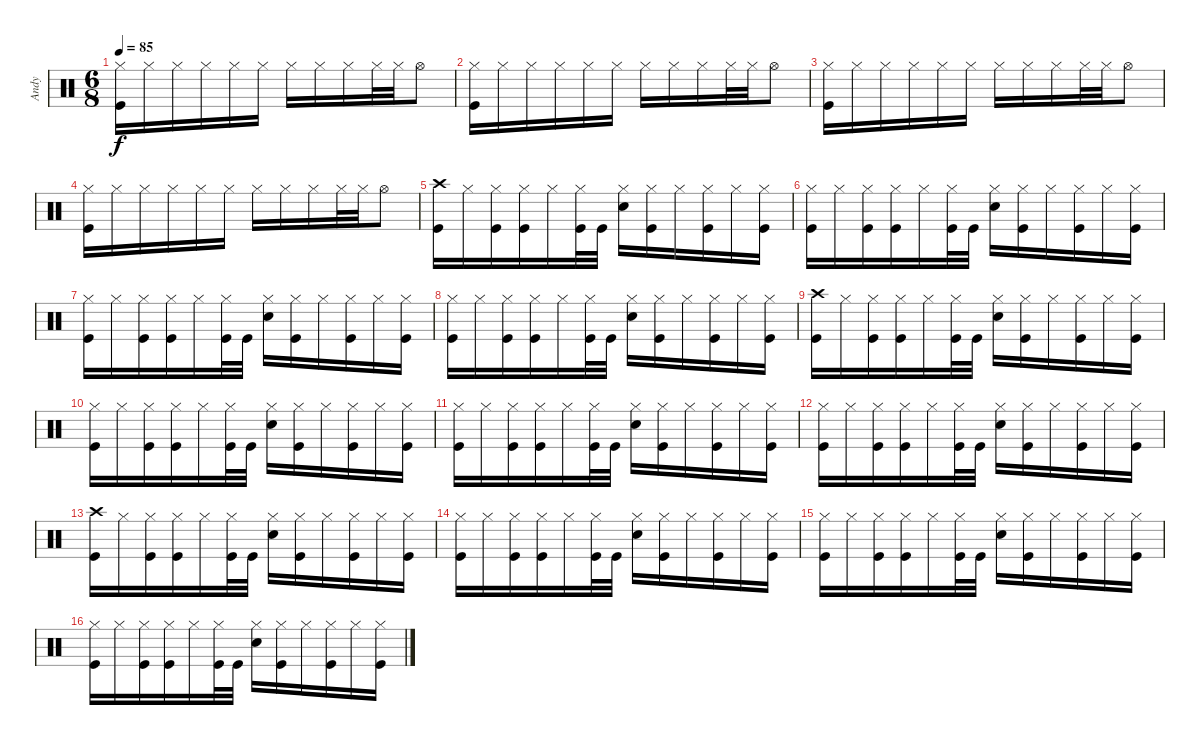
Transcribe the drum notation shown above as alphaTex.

\track ("Andy" "Andy") {instrument percussion}
\staff {score}
\articulation defaults
\ts (6 8)
\tempo 85
\clef neutral
\ks c
("Kick (hit)" "Hi-Hat (closed)").16{dy f} "Hi-Hat (closed)".16 "Hi-Hat (closed)".16 "Hi-Hat (closed)".16 "Hi-Hat (closed)".16 "Hi-Hat (closed)".16 "Hi-Hat (closed)".16 "Hi-Hat (closed)".16 "Hi-Hat (closed)".16 "Hi-Hat (closed)".32 "Hi-Hat (closed)".32 "Hi-Hat (open)".8 |
("Kick (hit)" "Hi-Hat (closed)").16 "Hi-Hat (closed)".16 "Hi-Hat (closed)".16 "Hi-Hat (closed)".16 "Hi-Hat (closed)".16 "Hi-Hat (closed)".16 "Hi-Hat (closed)".16 "Hi-Hat (closed)".16 "Hi-Hat (closed)".16 "Hi-Hat (closed)".32 "Hi-Hat (closed)".32 "Hi-Hat (open)".8 |
("Kick (hit)" "Hi-Hat (closed)").16 "Hi-Hat (closed)".16 "Hi-Hat (closed)".16 "Hi-Hat (closed)".16 "Hi-Hat (closed)".16 "Hi-Hat (closed)".16 "Hi-Hat (closed)".16 "Hi-Hat (closed)".16 "Hi-Hat (closed)".16 "Hi-Hat (closed)".32 "Hi-Hat (closed)".32 "Hi-Hat (open)".8 |
("Kick (hit)" "Hi-Hat (closed)").16 "Hi-Hat (closed)".16 "Hi-Hat (closed)".16 "Hi-Hat (closed)".16 "Hi-Hat (closed)".16 "Hi-Hat (closed)".16 "Hi-Hat (closed)".16 "Hi-Hat (closed)".16 "Hi-Hat (closed)".16 "Hi-Hat (closed)".32 "Hi-Hat (closed)".32 "Hi-Hat (open)".8 |
("Kick (hit)" "Crash high (hit)").16 "Hi-Hat (closed)".16 ("Hi-Hat (closed)" "Kick (hit)").16 ("Hi-Hat (closed)" "Kick (hit)").16 "Hi-Hat (closed)".16 ("Kick (hit)" "Hi-Hat (closed)").32 "Kick (hit)".32 ("Snare (hit) 2" "Hi-Hat (closed)").16 ("Hi-Hat (closed)" "Kick (hit)").16 "Hi-Hat (closed)".16 ("Hi-Hat (closed)" "Kick (hit)").16 "Hi-Hat (closed)".16 ("Hi-Hat (closed)" "Kick (hit)").16 |
("Kick (hit)" "Hi-Hat (closed)").16 "Hi-Hat (closed)".16 ("Hi-Hat (closed)" "Kick (hit)").16 ("Hi-Hat (closed)" "Kick (hit)").16 "Hi-Hat (closed)".16 ("Kick (hit)" "Hi-Hat (closed)").32 "Kick (hit)".32 ("Snare (hit) 2" "Hi-Hat (closed)").16 ("Hi-Hat (closed)" "Kick (hit)").16 "Hi-Hat (closed)".16 ("Hi-Hat (closed)" "Kick (hit)").16 "Hi-Hat (closed)".16 ("Hi-Hat (closed)" "Kick (hit)").16 |
("Kick (hit)" "Hi-Hat (closed)").16 "Hi-Hat (closed)".16 ("Hi-Hat (closed)" "Kick (hit)").16 ("Hi-Hat (closed)" "Kick (hit)").16 "Hi-Hat (closed)".16 ("Kick (hit)" "Hi-Hat (closed)").32 "Kick (hit)".32 ("Snare (hit) 2" "Hi-Hat (closed)").16 ("Hi-Hat (closed)" "Kick (hit)").16 "Hi-Hat (closed)".16 ("Hi-Hat (closed)" "Kick (hit)").16 "Hi-Hat (closed)".16 ("Hi-Hat (closed)" "Kick (hit)").16 |
("Kick (hit)" "Hi-Hat (closed)").16 "Hi-Hat (closed)".16 ("Hi-Hat (closed)" "Kick (hit)").16 ("Hi-Hat (closed)" "Kick (hit)").16 "Hi-Hat (closed)".16 ("Kick (hit)" "Hi-Hat (closed)").32 "Kick (hit)".32 ("Snare (hit) 2" "Hi-Hat (closed)").16 ("Hi-Hat (closed)" "Kick (hit)").16 "Hi-Hat (closed)".16 ("Hi-Hat (closed)" "Kick (hit)").16 "Hi-Hat (closed)".16 ("Hi-Hat (closed)" "Kick (hit)").16 |
("Kick (hit)" "Crash high (hit)").16 "Hi-Hat (closed)".16 ("Hi-Hat (closed)" "Kick (hit)").16 ("Hi-Hat (closed)" "Kick (hit)").16 "Hi-Hat (closed)".16 ("Kick (hit)" "Hi-Hat (closed)").32 "Kick (hit)".32 ("Snare (hit) 2" "Hi-Hat (closed)").16 ("Hi-Hat (closed)" "Kick (hit)").16 "Hi-Hat (closed)".16 ("Hi-Hat (closed)" "Kick (hit)").16 "Hi-Hat (closed)".16 ("Hi-Hat (closed)" "Kick (hit)").16 |
("Kick (hit)" "Hi-Hat (closed)").16 "Hi-Hat (closed)".16 ("Hi-Hat (closed)" "Kick (hit)").16 ("Hi-Hat (closed)" "Kick (hit)").16 "Hi-Hat (closed)".16 ("Kick (hit)" "Hi-Hat (closed)").32 "Kick (hit)".32 ("Snare (hit) 2" "Hi-Hat (closed)").16 ("Hi-Hat (closed)" "Kick (hit)").16 "Hi-Hat (closed)".16 ("Hi-Hat (closed)" "Kick (hit)").16 "Hi-Hat (closed)".16 ("Hi-Hat (closed)" "Kick (hit)").16 |
("Kick (hit)" "Hi-Hat (closed)").16 "Hi-Hat (closed)".16 ("Hi-Hat (closed)" "Kick (hit)").16 ("Hi-Hat (closed)" "Kick (hit)").16 "Hi-Hat (closed)".16 ("Kick (hit)" "Hi-Hat (closed)").32 "Kick (hit)".32 ("Snare (hit) 2" "Hi-Hat (closed)").16 ("Hi-Hat (closed)" "Kick (hit)").16 "Hi-Hat (closed)".16 ("Hi-Hat (closed)" "Kick (hit)").16 "Hi-Hat (closed)".16 ("Hi-Hat (closed)" "Kick (hit)").16 |
("Kick (hit)" "Hi-Hat (closed)").16 "Hi-Hat (closed)".16 ("Hi-Hat (closed)" "Kick (hit)").16 ("Hi-Hat (closed)" "Kick (hit)").16 "Hi-Hat (closed)".16 ("Kick (hit)" "Hi-Hat (closed)").32 "Kick (hit)".32 ("Snare (hit) 2" "Hi-Hat (closed)").16 ("Hi-Hat (closed)" "Kick (hit)").16 "Hi-Hat (closed)".16 ("Hi-Hat (closed)" "Kick (hit)").16 "Hi-Hat (closed)".16 ("Hi-Hat (closed)" "Kick (hit)").16 |
("Kick (hit)" "Crash high (hit)").16 "Hi-Hat (closed)".16 ("Hi-Hat (closed)" "Kick (hit)").16 ("Hi-Hat (closed)" "Kick (hit)").16 "Hi-Hat (closed)".16 ("Kick (hit)" "Hi-Hat (closed)").32 "Kick (hit)".32 ("Snare (hit) 2" "Hi-Hat (closed)").16 ("Hi-Hat (closed)" "Kick (hit)").16 "Hi-Hat (closed)".16 ("Hi-Hat (closed)" "Kick (hit)").16 "Hi-Hat (closed)".16 ("Hi-Hat (closed)" "Kick (hit)").16 |
("Kick (hit)" "Hi-Hat (closed)").16 "Hi-Hat (closed)".16 ("Hi-Hat (closed)" "Kick (hit)").16 ("Hi-Hat (closed)" "Kick (hit)").16 "Hi-Hat (closed)".16 ("Kick (hit)" "Hi-Hat (closed)").32 "Kick (hit)".32 ("Snare (hit) 2" "Hi-Hat (closed)").16 ("Hi-Hat (closed)" "Kick (hit)").16 "Hi-Hat (closed)".16 ("Hi-Hat (closed)" "Kick (hit)").16 "Hi-Hat (closed)".16 ("Hi-Hat (closed)" "Kick (hit)").16 |
("Kick (hit)" "Hi-Hat (closed)").16 "Hi-Hat (closed)".16 ("Hi-Hat (closed)" "Kick (hit)").16 ("Hi-Hat (closed)" "Kick (hit)").16 "Hi-Hat (closed)".16 ("Kick (hit)" "Hi-Hat (closed)").32 "Kick (hit)".32 ("Snare (hit) 2" "Hi-Hat (closed)").16 ("Hi-Hat (closed)" "Kick (hit)").16 "Hi-Hat (closed)".16 ("Hi-Hat (closed)" "Kick (hit)").16 "Hi-Hat (closed)".16 ("Hi-Hat (closed)" "Kick (hit)").16 |
("Kick (hit)" "Hi-Hat (closed)").16 "Hi-Hat (closed)".16 ("Hi-Hat (closed)" "Kick (hit)").16 ("Hi-Hat (closed)" "Kick (hit)").16 "Hi-Hat (closed)".16 ("Kick (hit)" "Hi-Hat (closed)").32 "Kick (hit)".32 ("Snare (hit) 2" "Hi-Hat (closed)").16 ("Hi-Hat (closed)" "Kick (hit)").16 "Hi-Hat (closed)".16 ("Hi-Hat (closed)" "Kick (hit)").16 "Hi-Hat (closed)".16 ("Hi-Hat (closed)" "Kick (hit)").16
